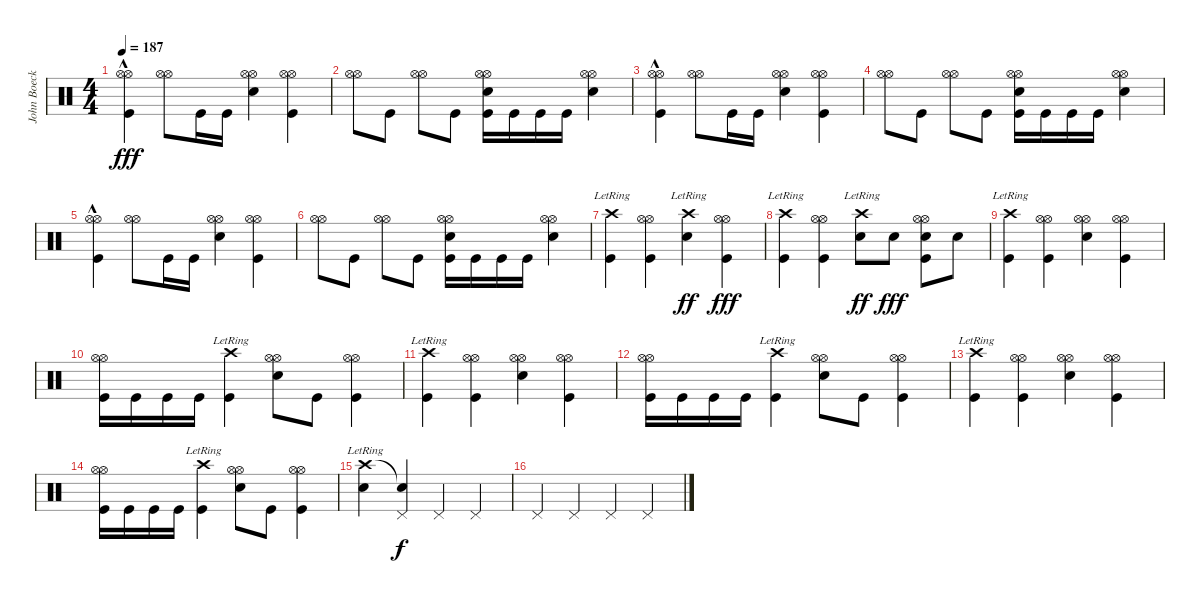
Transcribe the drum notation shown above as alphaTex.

\track ("John Boecklin - Drums" "John Boeck") {instrument percussion}
\staff {score}
\articulation defaults
\ts (4 4)
\tempo 187
\clef neutral
\ks c
("Hi-Hat (open)" "Hi-Hat (open)" "Kick (hit)"{hac}).4{dy fff} ("Hi-Hat (open)" "Hi-Hat (open)").8 "Kick (hit)".16 "Kick (hit)".16 ("Snare (hit) 2" "Hi-Hat (open)" "Hi-Hat (open)").4 ("Hi-Hat (open)" "Hi-Hat (open)" "Kick (hit)").4 |
("Hi-Hat (open)" "Hi-Hat (open)").8 "Kick (hit)".8 ("Hi-Hat (open)" "Hi-Hat (open)").8 "Kick (hit)".8 ("Snare (hit) 2" "Hi-Hat (open)" "Hi-Hat (open)" "Kick (hit)").16 "Kick (hit)".16 "Kick (hit)".16 "Kick (hit)".16 ("Snare (hit) 2" "Hi-Hat (open)" "Hi-Hat (open)").4 |
("Hi-Hat (open)" "Hi-Hat (open)" "Kick (hit)"{hac}).4 ("Hi-Hat (open)" "Hi-Hat (open)").8 "Kick (hit)".16 "Kick (hit)".16 ("Snare (hit) 2" "Hi-Hat (open)" "Hi-Hat (open)").4 ("Hi-Hat (open)" "Hi-Hat (open)" "Kick (hit)").4 |
("Hi-Hat (open)" "Hi-Hat (open)").8 "Kick (hit)".8 ("Hi-Hat (open)" "Hi-Hat (open)").8 "Kick (hit)".8 ("Snare (hit) 2" "Hi-Hat (open)" "Hi-Hat (open)" "Kick (hit)").16 "Kick (hit)".16 "Kick (hit)".16 "Kick (hit)".16 ("Snare (hit) 2" "Hi-Hat (open)" "Hi-Hat (open)").4 |
("Hi-Hat (open)" "Hi-Hat (open)" "Kick (hit)"{hac}).4 ("Hi-Hat (open)" "Hi-Hat (open)").8 "Kick (hit)".16 "Kick (hit)".16 ("Snare (hit) 2" "Hi-Hat (open)" "Hi-Hat (open)").4 ("Hi-Hat (open)" "Hi-Hat (open)" "Kick (hit)").4 |
("Hi-Hat (open)" "Hi-Hat (open)").8 "Kick (hit)".8 ("Hi-Hat (open)" "Hi-Hat (open)").8 "Kick (hit)".8 ("Snare (hit) 2" "Hi-Hat (open)" "Hi-Hat (open)" "Kick (hit)").16 "Kick (hit)".16 "Kick (hit)".16 "Kick (hit)".16 ("Snare (hit) 2" "Hi-Hat (open)" "Hi-Hat (open)").4 |
("Crash high (hit)"{lr} "Kick (hit)").4 ("Hi-Hat (open)" "Hi-Hat (open)" "Kick (hit)").4 ("Snare (hit) 2" "Crash high (hit)"{lr}).4{dy ff} ("Hi-Hat (open)" "Hi-Hat (open)" "Kick (hit)").4{dy fff} |
("Crash high (hit)"{lr} "Kick (hit)").4 ("Hi-Hat (open)" "Hi-Hat (open)" "Kick (hit)").4 ("Snare (hit) 2" "Crash high (hit)"{lr}).8{dy ff} "Snare (hit) 2".8{dy fff} ("Snare (hit) 2" "Hi-Hat (open)" "Hi-Hat (open)" "Kick (hit)").8 "Snare (hit) 2".8 |
("Crash high (hit)"{lr} "Kick (hit)").4 ("Hi-Hat (open)" "Hi-Hat (open)" "Kick (hit)").4 ("Snare (hit) 2" "Hi-Hat (open)" "Hi-Hat (open)").4 ("Hi-Hat (open)" "Hi-Hat (open)" "Kick (hit)").4 |
("Hi-Hat (open)" "Hi-Hat (open)" "Kick (hit)").16 "Kick (hit)".16 "Kick (hit)".16 "Kick (hit)".16 ("Crash high (hit)"{lr} "Kick (hit)").4 ("Snare (hit) 2" "Hi-Hat (open)" "Hi-Hat (open)").8 "Kick (hit)".8 ("Hi-Hat (open)" "Hi-Hat (open)" "Kick (hit)").4 |
("Crash high (hit)"{lr} "Kick (hit)").4 ("Hi-Hat (open)" "Hi-Hat (open)" "Kick (hit)").4 ("Snare (hit) 2" "Hi-Hat (open)" "Hi-Hat (open)").4 ("Hi-Hat (open)" "Hi-Hat (open)" "Kick (hit)").4 |
("Hi-Hat (open)" "Hi-Hat (open)" "Kick (hit)").16 "Kick (hit)".16 "Kick (hit)".16 "Kick (hit)".16 ("Crash high (hit)"{lr} "Kick (hit)").4 ("Snare (hit) 2" "Hi-Hat (open)" "Hi-Hat (open)").8 "Kick (hit)".8 ("Hi-Hat (open)" "Hi-Hat (open)" "Kick (hit)").4 |
("Crash high (hit)"{lr} "Kick (hit)").4 ("Hi-Hat (open)" "Hi-Hat (open)" "Kick (hit)").4 ("Snare (hit) 2" "Hi-Hat (open)" "Hi-Hat (open)").4 ("Hi-Hat (open)" "Hi-Hat (open)" "Kick (hit)").4 |
("Hi-Hat (open)" "Hi-Hat (open)" "Kick (hit)").16 "Kick (hit)".16 "Kick (hit)".16 "Kick (hit)".16 ("Crash high (hit)"{lr} "Kick (hit)").4 ("Snare (hit) 2" "Hi-Hat (open)" "Hi-Hat (open)").8 "Kick (hit)".8 ("Hi-Hat (open)" "Hi-Hat (open)" "Kick (hit)").4 |
("Crash high (hit)"{lr} "Snare (hit) 2").4 ("Snare (hit)"{t} "Pedal Hi-Hat (hit)").4{dy f} "Pedal Hi-Hat (hit)".4 "Pedal Hi-Hat (hit)".4 |
"Pedal Hi-Hat (hit)".4 "Pedal Hi-Hat (hit)".4 "Pedal Hi-Hat (hit)".4 "Pedal Hi-Hat (hit)".4
